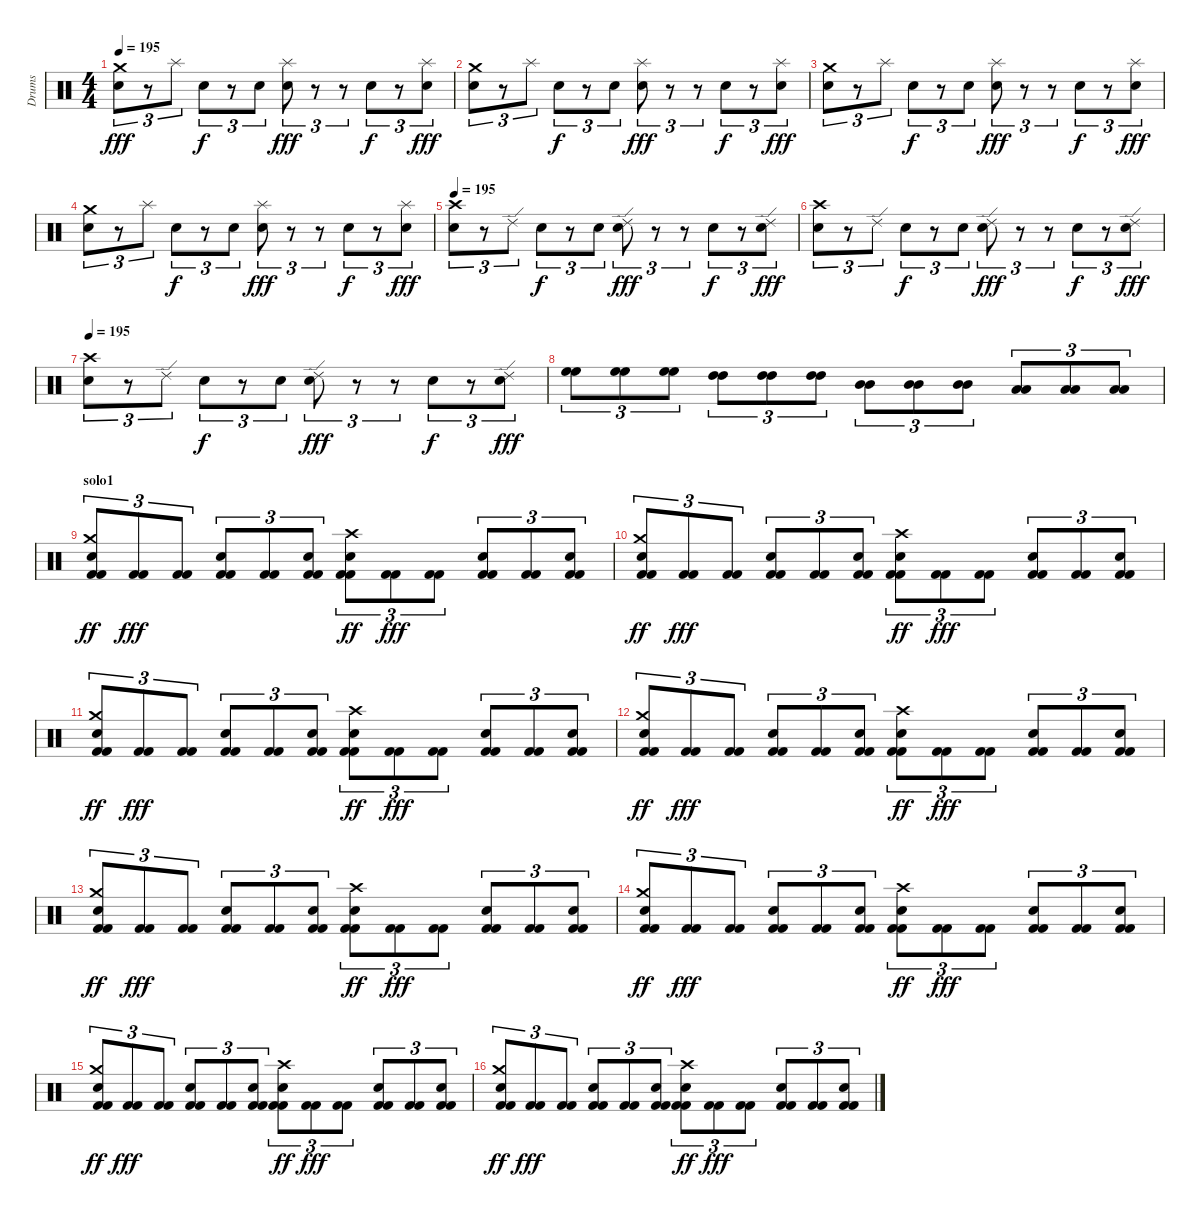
\track ("Drums" "Drums") {instrument percussion}
\staff {score}
\articulation defaults
\ts (4 4)
\tempo 195
\clef neutral
\ks c
("Electric Snare (hit)" "Crash medium (hit)").8{tu (3 2) dy fff} r.8{tu (3 2)} "Splash (hit)".8{tu (3 2)} "Electric Snare (hit)".8{tu (3 2) dy f} r.8{tu (3 2)} "Electric Snare (hit)".8{tu (3 2)} ("Splash (hit)" "Electric Snare (hit)").8{tu (3 2) dy fff} r.8{tu (3 2)} r.8{tu (3 2)} "Electric Snare (hit)".8{tu (3 2) dy f} r.8{tu (3 2)} ("Splash (hit)" "Electric Snare (hit)").8{tu (3 2) dy fff} |
("Electric Snare (hit)" "Crash medium (hit)").8{tu (3 2)} r.8{tu (3 2)} "Splash (hit)".8{tu (3 2)} "Electric Snare (hit)".8{tu (3 2) dy f} r.8{tu (3 2)} "Electric Snare (hit)".8{tu (3 2)} ("Splash (hit)" "Electric Snare (hit)").8{tu (3 2) dy fff} r.8{tu (3 2)} r.8{tu (3 2)} "Electric Snare (hit)".8{tu (3 2) dy f} r.8{tu (3 2)} ("Splash (hit)" "Electric Snare (hit)").8{tu (3 2) dy fff} |
("Electric Snare (hit)" "Crash medium (hit)").8{tu (3 2)} r.8{tu (3 2)} "Splash (hit)".8{tu (3 2)} "Electric Snare (hit)".8{tu (3 2) dy f} r.8{tu (3 2)} "Electric Snare (hit)".8{tu (3 2)} ("Splash (hit)" "Electric Snare (hit)").8{tu (3 2) dy fff} r.8{tu (3 2)} r.8{tu (3 2)} "Electric Snare (hit)".8{tu (3 2) dy f} r.8{tu (3 2)} ("Splash (hit)" "Electric Snare (hit)").8{tu (3 2) dy fff} |
("Electric Snare (hit)" "Crash medium (hit)").8{tu (3 2)} r.8{tu (3 2)} "Splash (hit)".8{tu (3 2)} "Electric Snare (hit)".8{tu (3 2) dy f} r.8{tu (3 2)} "Electric Snare (hit)".8{tu (3 2)} ("Splash (hit)" "Electric Snare (hit)").8{tu (3 2) dy fff} r.8{tu (3 2)} r.8{tu (3 2)} "Electric Snare (hit)".8{tu (3 2) dy f} r.8{tu (3 2)} ("Splash (hit)" "Electric Snare (hit)").8{tu (3 2) dy fff} |
\tempo 195
("Electric Snare (hit)" "Crash high (hit)").8{tu (3 2)} r.8{tu (3 2)} "Ride (edge) 2".8{tu (3 2)} "Electric Snare (hit)".8{tu (3 2) dy f} r.8{tu (3 2)} "Electric Snare (hit)".8{tu (3 2)} ("Ride (edge) 2" "Electric Snare (hit)").8{tu (3 2) dy fff} r.8{tu (3 2)} r.8{tu (3 2)} "Electric Snare (hit)".8{tu (3 2) dy f} r.8{tu (3 2)} ("Ride (edge) 2" "Electric Snare (hit)").8{tu (3 2) dy fff} |
("Electric Snare (hit)" "Crash high (hit)").8{tu (3 2)} r.8{tu (3 2)} "Ride (edge) 2".8{tu (3 2)} "Electric Snare (hit)".8{tu (3 2) dy f} r.8{tu (3 2)} "Electric Snare (hit)".8{tu (3 2)} ("Ride (edge) 2" "Electric Snare (hit)").8{tu (3 2) dy fff} r.8{tu (3 2)} r.8{tu (3 2)} "Electric Snare (hit)".8{tu (3 2) dy f} r.8{tu (3 2)} ("Ride (edge) 2" "Electric Snare (hit)").8{tu (3 2) dy fff} |
\tempo 195
("Electric Snare (hit)" "Crash high (hit)").8{tu (3 2)} r.8{tu (3 2)} "Ride (edge) 2".8{tu (3 2)} "Electric Snare (hit)".8{tu (3 2) dy f} r.8{tu (3 2)} "Electric Snare (hit)".8{tu (3 2)} ("Ride (edge) 2" "Electric Snare (hit)").8{tu (3 2) dy fff} r.8{tu (3 2)} r.8{tu (3 2)} "Electric Snare (hit)".8{tu (3 2) dy f} r.8{tu (3 2)} ("Ride (edge) 2" "Electric Snare (hit)").8{tu (3 2) dy fff} |
("High Floor Tom (hit)" "High Floor Tom (hit)").8{tu (3 2)} ("High Floor Tom (hit)" "High Floor Tom (hit)").8{tu (3 2)} ("High Floor Tom (hit)" "High Floor Tom (hit)").8{tu (3 2)} ("High Tom (hit)" "High Tom (hit)").8{tu (3 2)} ("High Tom (hit)" "High Tom (hit)").8{tu (3 2)} ("High Tom (hit)" "High Tom (hit)").8{tu (3 2)} ("Mid Tom (hit)" "Mid Tom (hit)").8{tu (3 2)} ("Mid Tom (hit)" "Mid Tom (hit)").8{tu (3 2)} ("Mid Tom (hit)" "Mid Tom (hit)").8{tu (3 2)} ("Low Tom (hit)" "Low Tom (hit)").8{tu (3 2)} ("Low Tom (hit)" "Low Tom (hit)").8{tu (3 2)} ("Low Tom (hit)" "Low Tom (hit)").8{tu (3 2)} |
\section ("" "solo1")
("Kick (hit) 2" "Kick (hit) 2" "Electric Snare (hit)" "Crash medium (hit)").8{tu (3 2) dy ff} ("Kick (hit) 2" "Kick (hit) 2").8{tu (3 2) dy fff} ("Kick (hit) 2" "Kick (hit) 2").8{tu (3 2)} ("Kick (hit) 2" "Kick (hit) 2" "Electric Snare (hit)").8{tu (3 2)} ("Kick (hit) 2" "Kick (hit) 2").8{tu (3 2)} ("Kick (hit) 2" "Kick (hit) 2" "Electric Snare (hit)").8{tu (3 2)} ("Kick (hit) 2" "Kick (hit) 2" "Snare (hit) 2" "Crash high (hit)").8{tu (3 2) dy ff} ("Kick (hit) 2" "Kick (hit) 2").8{tu (3 2) dy fff} ("Kick (hit) 2" "Kick (hit) 2").8{tu (3 2)} ("Kick (hit) 2" "Kick (hit) 2" "Snare (hit) 2").8{tu (3 2)} ("Kick (hit) 2" "Kick (hit) 2").8{tu (3 2)} ("Kick (hit) 2" "Kick (hit) 2" "Snare (hit) 2").8{tu (3 2)} |
("Kick (hit) 2" "Kick (hit) 2" "Electric Snare (hit)" "Crash medium (hit)").8{tu (3 2) dy ff} ("Kick (hit) 2" "Kick (hit) 2").8{tu (3 2) dy fff} ("Kick (hit) 2" "Kick (hit) 2").8{tu (3 2)} ("Kick (hit) 2" "Kick (hit) 2" "Electric Snare (hit)").8{tu (3 2)} ("Kick (hit) 2" "Kick (hit) 2").8{tu (3 2)} ("Kick (hit) 2" "Kick (hit) 2" "Electric Snare (hit)").8{tu (3 2)} ("Kick (hit) 2" "Kick (hit) 2" "Snare (hit) 2" "Crash high (hit)").8{tu (3 2) dy ff} ("Kick (hit) 2" "Kick (hit) 2").8{tu (3 2) dy fff} ("Kick (hit) 2" "Kick (hit) 2").8{tu (3 2)} ("Kick (hit) 2" "Kick (hit) 2" "Snare (hit) 2").8{tu (3 2)} ("Kick (hit) 2" "Kick (hit) 2").8{tu (3 2)} ("Kick (hit) 2" "Kick (hit) 2" "Snare (hit) 2").8{tu (3 2)} |
("Kick (hit) 2" "Kick (hit) 2" "Electric Snare (hit)" "Crash medium (hit)").8{tu (3 2) dy ff} ("Kick (hit) 2" "Kick (hit) 2").8{tu (3 2) dy fff} ("Kick (hit) 2" "Kick (hit) 2").8{tu (3 2)} ("Kick (hit) 2" "Kick (hit) 2" "Electric Snare (hit)").8{tu (3 2)} ("Kick (hit) 2" "Kick (hit) 2").8{tu (3 2)} ("Kick (hit) 2" "Kick (hit) 2" "Electric Snare (hit)").8{tu (3 2)} ("Kick (hit) 2" "Kick (hit) 2" "Snare (hit) 2" "Crash high (hit)").8{tu (3 2) dy ff} ("Kick (hit) 2" "Kick (hit) 2").8{tu (3 2) dy fff} ("Kick (hit) 2" "Kick (hit) 2").8{tu (3 2)} ("Kick (hit) 2" "Kick (hit) 2" "Snare (hit) 2").8{tu (3 2)} ("Kick (hit) 2" "Kick (hit) 2").8{tu (3 2)} ("Kick (hit) 2" "Kick (hit) 2" "Snare (hit) 2").8{tu (3 2)} |
("Kick (hit) 2" "Kick (hit) 2" "Electric Snare (hit)" "Crash medium (hit)").8{tu (3 2) dy ff} ("Kick (hit) 2" "Kick (hit) 2").8{tu (3 2) dy fff} ("Kick (hit) 2" "Kick (hit) 2").8{tu (3 2)} ("Kick (hit) 2" "Kick (hit) 2" "Electric Snare (hit)").8{tu (3 2)} ("Kick (hit) 2" "Kick (hit) 2").8{tu (3 2)} ("Kick (hit) 2" "Kick (hit) 2" "Electric Snare (hit)").8{tu (3 2)} ("Kick (hit) 2" "Kick (hit) 2" "Snare (hit) 2" "Crash high (hit)").8{tu (3 2) dy ff} ("Kick (hit) 2" "Kick (hit) 2").8{tu (3 2) dy fff} ("Kick (hit) 2" "Kick (hit) 2").8{tu (3 2)} ("Kick (hit) 2" "Kick (hit) 2" "Snare (hit) 2").8{tu (3 2)} ("Kick (hit) 2" "Kick (hit) 2").8{tu (3 2)} ("Kick (hit) 2" "Kick (hit) 2" "Snare (hit) 2").8{tu (3 2)} |
("Kick (hit) 2" "Kick (hit) 2" "Electric Snare (hit)" "Crash medium (hit)").8{tu (3 2) dy ff} ("Kick (hit) 2" "Kick (hit) 2").8{tu (3 2) dy fff} ("Kick (hit) 2" "Kick (hit) 2").8{tu (3 2)} ("Kick (hit) 2" "Kick (hit) 2" "Electric Snare (hit)").8{tu (3 2)} ("Kick (hit) 2" "Kick (hit) 2").8{tu (3 2)} ("Kick (hit) 2" "Kick (hit) 2" "Electric Snare (hit)").8{tu (3 2)} ("Kick (hit) 2" "Kick (hit) 2" "Snare (hit) 2" "Crash high (hit)").8{tu (3 2) dy ff} ("Kick (hit) 2" "Kick (hit) 2").8{tu (3 2) dy fff} ("Kick (hit) 2" "Kick (hit) 2").8{tu (3 2)} ("Kick (hit) 2" "Kick (hit) 2" "Snare (hit) 2").8{tu (3 2)} ("Kick (hit) 2" "Kick (hit) 2").8{tu (3 2)} ("Kick (hit) 2" "Kick (hit) 2" "Snare (hit) 2").8{tu (3 2)} |
("Kick (hit) 2" "Kick (hit) 2" "Electric Snare (hit)" "Crash medium (hit)").8{tu (3 2) dy ff} ("Kick (hit) 2" "Kick (hit) 2").8{tu (3 2) dy fff} ("Kick (hit) 2" "Kick (hit) 2").8{tu (3 2)} ("Kick (hit) 2" "Kick (hit) 2" "Electric Snare (hit)").8{tu (3 2)} ("Kick (hit) 2" "Kick (hit) 2").8{tu (3 2)} ("Kick (hit) 2" "Kick (hit) 2" "Electric Snare (hit)").8{tu (3 2)} ("Kick (hit) 2" "Kick (hit) 2" "Snare (hit) 2" "Crash high (hit)").8{tu (3 2) dy ff} ("Kick (hit) 2" "Kick (hit) 2").8{tu (3 2) dy fff} ("Kick (hit) 2" "Kick (hit) 2").8{tu (3 2)} ("Kick (hit) 2" "Kick (hit) 2" "Snare (hit) 2").8{tu (3 2)} ("Kick (hit) 2" "Kick (hit) 2").8{tu (3 2)} ("Kick (hit) 2" "Kick (hit) 2" "Snare (hit) 2").8{tu (3 2)} |
("Kick (hit) 2" "Kick (hit) 2" "Electric Snare (hit)" "Crash medium (hit)").8{tu (3 2) dy ff} ("Kick (hit) 2" "Kick (hit) 2").8{tu (3 2) dy fff} ("Kick (hit) 2" "Kick (hit) 2").8{tu (3 2)} ("Kick (hit) 2" "Kick (hit) 2" "Electric Snare (hit)").8{tu (3 2)} ("Kick (hit) 2" "Kick (hit) 2").8{tu (3 2)} ("Kick (hit) 2" "Kick (hit) 2" "Electric Snare (hit)").8{tu (3 2)} ("Kick (hit) 2" "Kick (hit) 2" "Snare (hit) 2" "Crash high (hit)").8{tu (3 2) dy ff} ("Kick (hit) 2" "Kick (hit) 2").8{tu (3 2) dy fff} ("Kick (hit) 2" "Kick (hit) 2").8{tu (3 2)} ("Kick (hit) 2" "Kick (hit) 2" "Snare (hit) 2").8{tu (3 2)} ("Kick (hit) 2" "Kick (hit) 2").8{tu (3 2)} ("Kick (hit) 2" "Kick (hit) 2" "Snare (hit) 2").8{tu (3 2)} |
("Kick (hit) 2" "Kick (hit) 2" "Electric Snare (hit)" "Crash medium (hit)").8{tu (3 2) dy ff} ("Kick (hit) 2" "Kick (hit) 2").8{tu (3 2) dy fff} ("Kick (hit) 2" "Kick (hit) 2").8{tu (3 2)} ("Kick (hit) 2" "Kick (hit) 2" "Electric Snare (hit)").8{tu (3 2)} ("Kick (hit) 2" "Kick (hit) 2").8{tu (3 2)} ("Kick (hit) 2" "Kick (hit) 2" "Electric Snare (hit)").8{tu (3 2)} ("Kick (hit) 2" "Kick (hit) 2" "Snare (hit) 2" "Crash high (hit)").8{tu (3 2) dy ff} ("Kick (hit) 2" "Kick (hit) 2").8{tu (3 2) dy fff} ("Kick (hit) 2" "Kick (hit) 2").8{tu (3 2)} ("Kick (hit) 2" "Kick (hit) 2" "Snare (hit) 2").8{tu (3 2)} ("Kick (hit) 2" "Kick (hit) 2").8{tu (3 2)} ("Kick (hit) 2" "Kick (hit) 2" "Snare (hit) 2").8{tu (3 2)}
